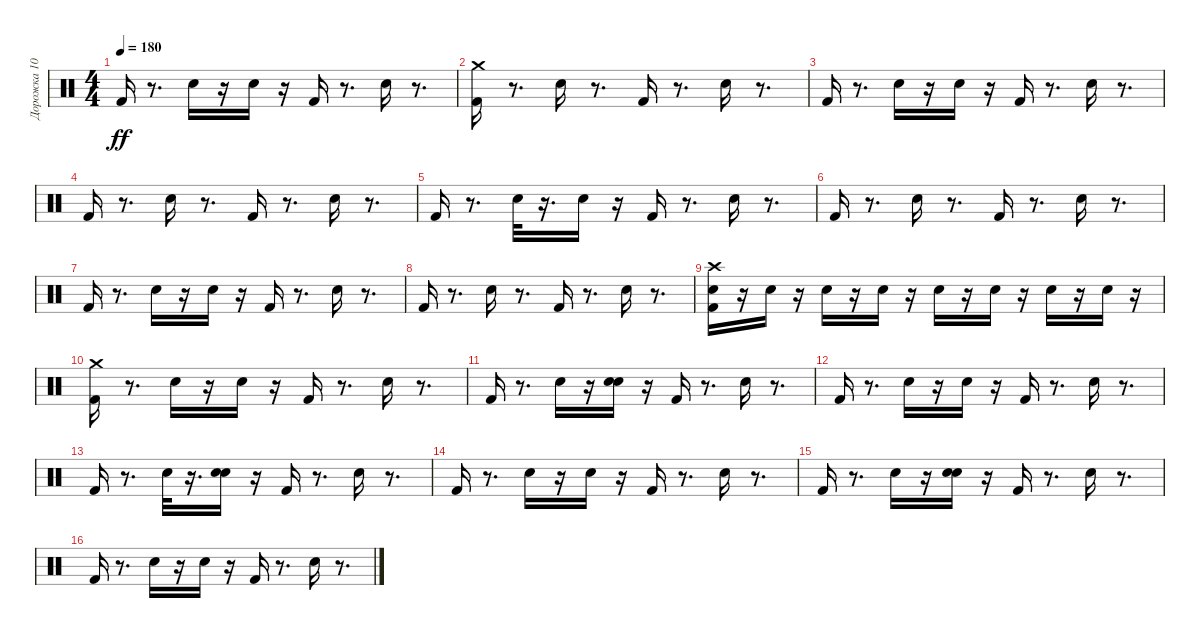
\track ("Дорожка 10" "Дорожка 10") {instrument percussion}
\staff {score}
\articulation defaults
\ts (4 4)
\tempo 180
\clef neutral
\ks c "Kick (hit) 2".16{dy ff}
r.8{d} "Electric Snare (hit)".16 r.16 "Electric Snare (hit)".16 r.16 "Kick (hit) 2".16 r.8{d} "Electric Snare (hit)".16 r.8{d} |
("Crash medium (hit)" "Kick (hit) 2").16 r.8{d} "Electric Snare (hit)".16 r.8{d} "Kick (hit) 2".16 r.8{d} "Electric Snare (hit)".16 r.8{d} |
"Kick (hit) 2".16 r.8{d} "Electric Snare (hit)".16 r.16 "Electric Snare (hit)".16 r.16 "Kick (hit) 2".16 r.8{d} "Electric Snare (hit)".16 r.8{d} |
"Kick (hit) 2".16 r.8{d} "Electric Snare (hit)".16 r.8{d} "Kick (hit) 2".16 r.8{d} "Electric Snare (hit)".16 r.8{d} |
"Kick (hit) 2".16 r.8{d} "Electric Snare (hit)".32 r.16{d} "Electric Snare (hit)".16 r.16 "Kick (hit) 2".16 r.8{d} "Electric Snare (hit)".16 r.8{d} |
"Kick (hit) 2".16 r.8{d} "Electric Snare (hit)".16 r.8{d} "Kick (hit) 2".16 r.8{d} "Electric Snare (hit)".16 r.8{d} |
"Kick (hit) 2".16 r.8{d} "Electric Snare (hit)".16 r.16 "Electric Snare (hit)".16 r.16 "Kick (hit) 2".16 r.8{d} "Electric Snare (hit)".16 r.8{d} |
"Kick (hit) 2".16 r.8{d} "Electric Snare (hit)".16 r.8{d} "Kick (hit) 2".16 r.8{d} "Electric Snare (hit)".16 r.8{d} |
("Electric Snare (hit)" "Crash high (hit)" "Kick (hit) 2").16 r.16 "Electric Snare (hit)".16 r.16 "Electric Snare (hit)".16 r.16 "Electric Snare (hit)".16 r.16 "Electric Snare (hit)".16 r.16 "Electric Snare (hit)".16 r.16 "Electric Snare (hit)".16 r.16 "Electric Snare (hit)".16 r.16 |
("Crash medium (hit)" "Kick (hit) 2").16 r.8{d} "Electric Snare (hit)".16 r.16 "Electric Snare (hit)".16 r.16 "Kick (hit) 2".16 r.8{d} "Electric Snare (hit)".16 r.8{d} |
"Kick (hit) 2".16 r.8{d} "Electric Snare (hit)".16 r.16 ("Electric Snare (hit)" "Hand Clap (hit)").16 r.16 "Kick (hit) 2".16 r.8{d} "Electric Snare (hit)".16 r.8{d} |
"Kick (hit) 2".16 r.8{d} "Electric Snare (hit)".16 r.16 "Electric Snare (hit)".16 r.16 "Kick (hit) 2".16 r.8{d} "Electric Snare (hit)".16 r.8{d} |
"Kick (hit) 2".16 r.8{d} "Electric Snare (hit)".32 r.16{d} ("Electric Snare (hit)" "Hand Clap (hit)").16 r.16 "Kick (hit) 2".16 r.8{d} "Electric Snare (hit)".16 r.8{d} |
"Kick (hit) 2".16 r.8{d} "Electric Snare (hit)".16 r.16 "Electric Snare (hit)".16 r.16 "Kick (hit) 2".16 r.8{d} "Electric Snare (hit)".16 r.8{d} |
"Kick (hit) 2".16 r.8{d} "Electric Snare (hit)".16 r.16 ("Electric Snare (hit)" "Hand Clap (hit)").16 r.16 "Kick (hit) 2".16 r.8{d} "Electric Snare (hit)".16 r.8{d} |
"Kick (hit) 2".16 r.8{d} "Electric Snare (hit)".16 r.16 "Electric Snare (hit)".16 r.16 "Kick (hit) 2".16 r.8{d} "Electric Snare (hit)".16 r.8{d}
